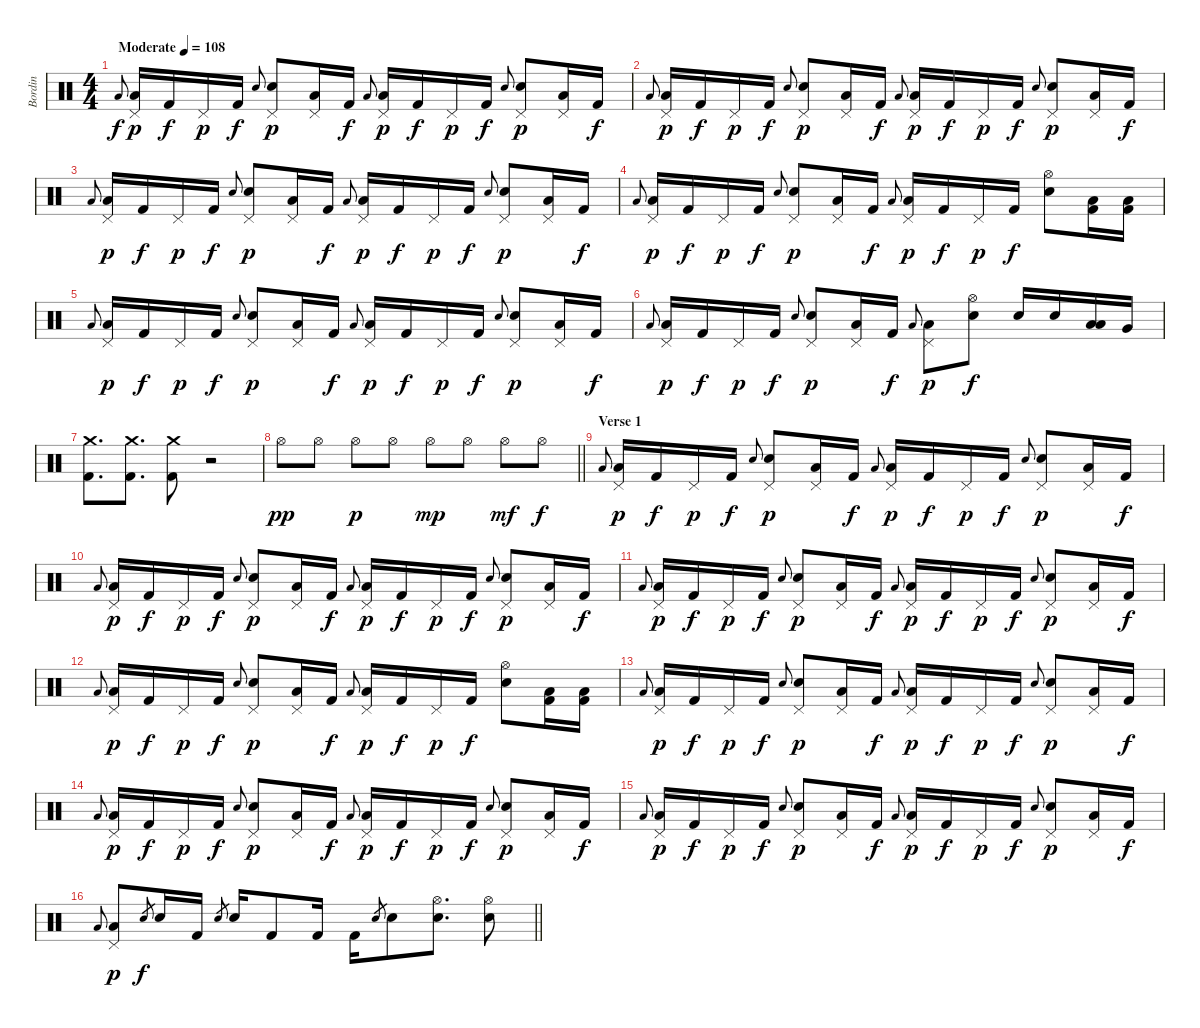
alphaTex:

\track ("Bordin" "Bordin") {instrument percussion}
\staff {score}
\articulation defaults
\ts (4 4)
\tempo (108 "Moderate")
\clef neutral
\ks c "Low Tom (hit)".8{gr onbeat dy f}
("Low Tom (hit)" "Pedal Hi-Hat (hit)").16{dy p} "Kick (hit) 2".16{dy f} "Pedal Hi-Hat (hit)".16{dy p} "Kick (hit) 2".16{dy f} "Electric Snare (hit)".8{gr onbeat} ("Pedal Hi-Hat (hit)" "Electric Snare (hit)").8{dy p} ("Low Tom (hit)" "Pedal Hi-Hat (hit)").16 "Kick (hit) 2".16{dy f} "Low Tom (hit)".8{gr onbeat} ("Low Tom (hit)" "Pedal Hi-Hat (hit)").16{dy p} "Kick (hit) 2".16{dy f} "Pedal Hi-Hat (hit)".16{dy p} "Kick (hit) 2".16{dy f} "Electric Snare (hit)".8{gr onbeat} ("Pedal Hi-Hat (hit)" "Electric Snare (hit)").8{dy p} ("Low Tom (hit)" "Pedal Hi-Hat (hit)").16 "Kick (hit) 2".16{dy f} |
"Low Tom (hit)".8{gr onbeat} ("Low Tom (hit)" "Pedal Hi-Hat (hit)").16{dy p} "Kick (hit) 2".16{dy f} "Pedal Hi-Hat (hit)".16{dy p} "Kick (hit) 2".16{dy f} "Electric Snare (hit)".8{gr onbeat} ("Pedal Hi-Hat (hit)" "Electric Snare (hit)").8{dy p} ("Low Tom (hit)" "Pedal Hi-Hat (hit)").16 "Kick (hit) 2".16{dy f} "Low Tom (hit)".8{gr onbeat} ("Low Tom (hit)" "Pedal Hi-Hat (hit)").16{dy p} "Kick (hit) 2".16{dy f} "Pedal Hi-Hat (hit)".16{dy p} "Kick (hit) 2".16{dy f} "Electric Snare (hit)".8{gr onbeat} ("Pedal Hi-Hat (hit)" "Electric Snare (hit)").8{dy p} ("Low Tom (hit)" "Pedal Hi-Hat (hit)").16 "Kick (hit) 2".16{dy f} |
"Low Tom (hit)".8{gr onbeat} ("Low Tom (hit)" "Pedal Hi-Hat (hit)").16{dy p} "Kick (hit) 2".16{dy f} "Pedal Hi-Hat (hit)".16{dy p} "Kick (hit) 2".16{dy f} "Electric Snare (hit)".8{gr onbeat} ("Pedal Hi-Hat (hit)" "Electric Snare (hit)").8{dy p} ("Low Tom (hit)" "Pedal Hi-Hat (hit)").16 "Kick (hit) 2".16{dy f} "Low Tom (hit)".8{gr onbeat} ("Low Tom (hit)" "Pedal Hi-Hat (hit)").16{dy p} "Kick (hit) 2".16{dy f} "Pedal Hi-Hat (hit)".16{dy p} "Kick (hit) 2".16{dy f} "Electric Snare (hit)".8{gr onbeat} ("Pedal Hi-Hat (hit)" "Electric Snare (hit)").8{dy p} ("Low Tom (hit)" "Pedal Hi-Hat (hit)").16 "Kick (hit) 2".16{dy f} |
"Low Tom (hit)".8{gr onbeat} ("Low Tom (hit)" "Pedal Hi-Hat (hit)").16{dy p} "Kick (hit) 2".16{dy f} "Pedal Hi-Hat (hit)".16{dy p} "Kick (hit) 2".16{dy f} "Electric Snare (hit)".8{gr onbeat} ("Pedal Hi-Hat (hit)" "Electric Snare (hit)").8{dy p} ("Low Tom (hit)" "Pedal Hi-Hat (hit)").16 "Kick (hit) 2".16{dy f} "Low Tom (hit)".8{gr onbeat} ("Low Tom (hit)" "Pedal Hi-Hat (hit)").16{dy p} "Kick (hit) 2".16{dy f} "Pedal Hi-Hat (hit)".16{dy p} "Kick (hit) 2".16{dy f} ("Hi-Hat (open)" "Electric Snare (hit)").8 ("Low Tom (hit)" "Kick (hit) 2").16 ("Low Tom (hit)" "Kick (hit) 2").16 |
"Low Tom (hit)".8{gr onbeat} ("Low Tom (hit)" "Pedal Hi-Hat (hit)").16{dy p} "Kick (hit) 2".16{dy f} "Pedal Hi-Hat (hit)".16{dy p} "Kick (hit) 2".16{dy f} "Electric Snare (hit)".8{gr onbeat} ("Pedal Hi-Hat (hit)" "Electric Snare (hit)").8{dy p} ("Low Tom (hit)" "Pedal Hi-Hat (hit)").16 "Kick (hit) 2".16{dy f} "Low Tom (hit)".8{gr onbeat} ("Low Tom (hit)" "Pedal Hi-Hat (hit)").16{dy p} "Kick (hit) 2".16{dy f} "Pedal Hi-Hat (hit)".16{dy p} "Kick (hit) 2".16{dy f} "Electric Snare (hit)".8{gr onbeat} ("Pedal Hi-Hat (hit)" "Electric Snare (hit)").8{dy p} ("Low Tom (hit)" "Pedal Hi-Hat (hit)").16 "Kick (hit) 2".16{dy f} |
"Low Tom (hit)".8{gr onbeat} ("Low Tom (hit)" "Pedal Hi-Hat (hit)").16{dy p} "Kick (hit) 2".16{dy f} "Pedal Hi-Hat (hit)".16{dy p} "Kick (hit) 2".16{dy f} "Electric Snare (hit)".8{gr onbeat} ("Pedal Hi-Hat (hit)" "Electric Snare (hit)").8{dy p} ("Low Tom (hit)" "Pedal Hi-Hat (hit)").16 "Kick (hit) 2".16{dy f} "Low Tom (hit)".8{gr onbeat} ("Low Tom (hit)" "Pedal Hi-Hat (hit)").8{dy p} ("Hi-Hat (open)" "Electric Snare (hit)").8{dy f} "Electric Snare (hit)".16 "Electric Snare (hit)".16 ("Low Tom (hit)" "Low Tom (hit)").16 "Very Low Tom (hit)".16 |
("Crash medium (hit)" "Kick (hit) 2").8{d} ("Crash medium (hit)" "Kick (hit) 2").8{d} ("Crash medium (hit)" "Kick (hit) 2").8 r.2 |
\barLineRight lightlight "Hi-Hat (open)".8{dy pp} "Hi-Hat (open)".8 "Hi-Hat (open)".8{dy p} "Hi-Hat (open)".8 "Hi-Hat (open)".8{dy mp} "Hi-Hat (open)".8 "Hi-Hat (open)".8{dy mf} "Hi-Hat (open)".8{dy f}
|
\section ("" "Verse 1")
"Low Tom (hit)".8{gr onbeat} ("Low Tom (hit)" "Pedal Hi-Hat (hit)").16{dy p} "Kick (hit) 2".16{dy f} "Pedal Hi-Hat (hit)".16{dy p} "Kick (hit) 2".16{dy f} "Electric Snare (hit)".8{gr onbeat} ("Pedal Hi-Hat (hit)" "Electric Snare (hit)").8{dy p} ("Low Tom (hit)" "Pedal Hi-Hat (hit)").16 "Kick (hit) 2".16{dy f} "Low Tom (hit)".8{gr onbeat} ("Low Tom (hit)" "Pedal Hi-Hat (hit)").16{dy p} "Kick (hit) 2".16{dy f} "Pedal Hi-Hat (hit)".16{dy p} "Kick (hit) 2".16{dy f} "Electric Snare (hit)".8{gr onbeat} ("Pedal Hi-Hat (hit)" "Electric Snare (hit)").8{dy p} ("Low Tom (hit)" "Pedal Hi-Hat (hit)").16 "Kick (hit) 2".16{dy f} |
"Low Tom (hit)".8{gr onbeat} ("Low Tom (hit)" "Pedal Hi-Hat (hit)").16{dy p} "Kick (hit) 2".16{dy f} "Pedal Hi-Hat (hit)".16{dy p} "Kick (hit) 2".16{dy f} "Electric Snare (hit)".8{gr onbeat} ("Pedal Hi-Hat (hit)" "Electric Snare (hit)").8{dy p} ("Low Tom (hit)" "Pedal Hi-Hat (hit)").16 "Kick (hit) 2".16{dy f} "Low Tom (hit)".8{gr onbeat} ("Low Tom (hit)" "Pedal Hi-Hat (hit)").16{dy p} "Kick (hit) 2".16{dy f} "Pedal Hi-Hat (hit)".16{dy p} "Kick (hit) 2".16{dy f} "Electric Snare (hit)".8{gr onbeat} ("Pedal Hi-Hat (hit)" "Electric Snare (hit)").8{dy p} ("Low Tom (hit)" "Pedal Hi-Hat (hit)").16 "Kick (hit) 2".16{dy f} |
"Low Tom (hit)".8{gr onbeat} ("Low Tom (hit)" "Pedal Hi-Hat (hit)").16{dy p} "Kick (hit) 2".16{dy f} "Pedal Hi-Hat (hit)".16{dy p} "Kick (hit) 2".16{dy f} "Electric Snare (hit)".8{gr onbeat} ("Pedal Hi-Hat (hit)" "Electric Snare (hit)").8{dy p} ("Low Tom (hit)" "Pedal Hi-Hat (hit)").16 "Kick (hit) 2".16{dy f} "Low Tom (hit)".8{gr onbeat} ("Low Tom (hit)" "Pedal Hi-Hat (hit)").16{dy p} "Kick (hit) 2".16{dy f} "Pedal Hi-Hat (hit)".16{dy p} "Kick (hit) 2".16{dy f} "Electric Snare (hit)".8{gr onbeat} ("Pedal Hi-Hat (hit)" "Electric Snare (hit)").8{dy p} ("Low Tom (hit)" "Pedal Hi-Hat (hit)").16 "Kick (hit) 2".16{dy f} |
"Low Tom (hit)".8{gr onbeat} ("Low Tom (hit)" "Pedal Hi-Hat (hit)").16{dy p} "Kick (hit) 2".16{dy f} "Pedal Hi-Hat (hit)".16{dy p} "Kick (hit) 2".16{dy f} "Electric Snare (hit)".8{gr onbeat} ("Pedal Hi-Hat (hit)" "Electric Snare (hit)").8{dy p} ("Low Tom (hit)" "Pedal Hi-Hat (hit)").16 "Kick (hit) 2".16{dy f} "Low Tom (hit)".8{gr onbeat} ("Low Tom (hit)" "Pedal Hi-Hat (hit)").16{dy p} "Kick (hit) 2".16{dy f} "Pedal Hi-Hat (hit)".16{dy p} "Kick (hit) 2".16{dy f} ("Hi-Hat (open)" "Electric Snare (hit)").8 ("Low Tom (hit)" "Kick (hit) 2").16 ("Low Tom (hit)" "Kick (hit) 2").16 |
"Low Tom (hit)".8{gr onbeat} ("Low Tom (hit)" "Pedal Hi-Hat (hit)").16{dy p} "Kick (hit) 2".16{dy f} "Pedal Hi-Hat (hit)".16{dy p} "Kick (hit) 2".16{dy f} "Electric Snare (hit)".8{gr onbeat} ("Pedal Hi-Hat (hit)" "Electric Snare (hit)").8{dy p} ("Low Tom (hit)" "Pedal Hi-Hat (hit)").16 "Kick (hit) 2".16{dy f} "Low Tom (hit)".8{gr onbeat} ("Low Tom (hit)" "Pedal Hi-Hat (hit)").16{dy p} "Kick (hit) 2".16{dy f} "Pedal Hi-Hat (hit)".16{dy p} "Kick (hit) 2".16{dy f} "Electric Snare (hit)".8{gr onbeat} ("Pedal Hi-Hat (hit)" "Electric Snare (hit)").8{dy p} ("Low Tom (hit)" "Pedal Hi-Hat (hit)").16 "Kick (hit) 2".16{dy f} |
"Low Tom (hit)".8{gr onbeat} ("Low Tom (hit)" "Pedal Hi-Hat (hit)").16{dy p} "Kick (hit) 2".16{dy f} "Pedal Hi-Hat (hit)".16{dy p} "Kick (hit) 2".16{dy f} "Electric Snare (hit)".8{gr onbeat} ("Pedal Hi-Hat (hit)" "Electric Snare (hit)").8{dy p} ("Low Tom (hit)" "Pedal Hi-Hat (hit)").16 "Kick (hit) 2".16{dy f} "Low Tom (hit)".8{gr onbeat} ("Low Tom (hit)" "Pedal Hi-Hat (hit)").16{dy p} "Kick (hit) 2".16{dy f} "Pedal Hi-Hat (hit)".16{dy p} "Kick (hit) 2".16{dy f} "Electric Snare (hit)".8{gr onbeat} ("Pedal Hi-Hat (hit)" "Electric Snare (hit)").8{dy p} ("Low Tom (hit)" "Pedal Hi-Hat (hit)").16 "Kick (hit) 2".16{dy f} |
"Low Tom (hit)".8{gr onbeat} ("Low Tom (hit)" "Pedal Hi-Hat (hit)").16{dy p} "Kick (hit) 2".16{dy f} "Pedal Hi-Hat (hit)".16{dy p} "Kick (hit) 2".16{dy f} "Electric Snare (hit)".8{gr onbeat} ("Pedal Hi-Hat (hit)" "Electric Snare (hit)").8{dy p} ("Low Tom (hit)" "Pedal Hi-Hat (hit)").16 "Kick (hit) 2".16{dy f} "Low Tom (hit)".8{gr onbeat} ("Low Tom (hit)" "Pedal Hi-Hat (hit)").16{dy p} "Kick (hit) 2".16{dy f} "Pedal Hi-Hat (hit)".16{dy p} "Kick (hit) 2".16{dy f} "Electric Snare (hit)".8{gr onbeat} ("Pedal Hi-Hat (hit)" "Electric Snare (hit)").8{dy p} ("Low Tom (hit)" "Pedal Hi-Hat (hit)").16 "Kick (hit) 2".16{dy f} |
\barLineRight lightlight "Low Tom (hit)".8{gr onbeat}
("Low Tom (hit)" "Pedal Hi-Hat (hit)").8{dy p} "Electric Snare (hit)".8{gr dy f} "Electric Snare (hit)".16 "Kick (hit) 2".16 "Electric Snare (hit)".8{gr} "Electric Snare (hit)".16 "Kick (hit) 2".8 "Kick (hit) 2".16 "Kick (hit) 2".16 "Electric Snare (hit)".8{gr} "Electric Snare (hit)".8 ("Hi-Hat (open)" "Electric Snare (hit)").8{d} ("Hi-Hat (open)" "Electric Snare (hit)").8
